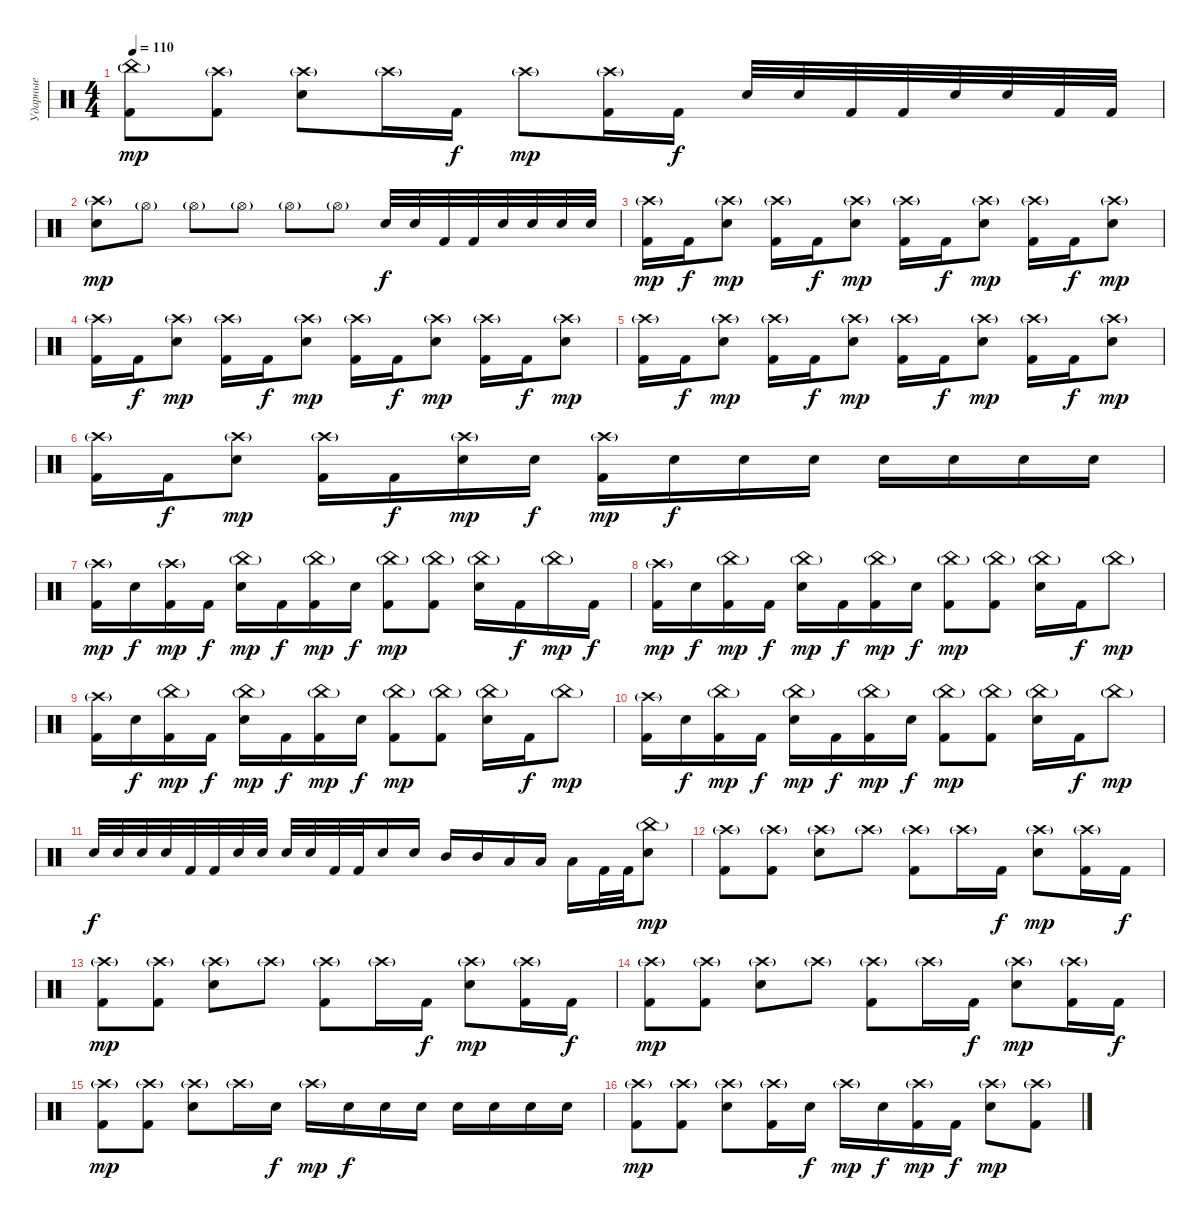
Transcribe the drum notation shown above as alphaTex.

\track ("Ударные" "Ударные") {instrument percussion}
\staff {score}
\articulation defaults
\ts (4 4)
\tempo 110
\clef neutral
\ks c
("China (hit)"{g} "Kick (hit) 2").8{dy mp} ("Crash high (hit)"{g} "Kick (hit) 2").8 ("Crash high (hit)"{g} "Electric Snare (hit)").8 "Crash high (hit)"{g}.16 "Kick (hit) 2".16{dy f} "Crash high (hit)"{g}.8{dy mp} ("Crash high (hit)"{g} "Kick (hit) 2").16 "Kick (hit) 2".16{dy f} "Electric Snare (hit)".32 "Electric Snare (hit)".32 "Kick (hit) 2".32 "Kick (hit) 2".32 "Electric Snare (hit)".32 "Electric Snare (hit)".32 "Kick (hit) 2".32 "Kick (hit) 2".32 |
("Crash high (hit)"{g} "Electric Snare (hit)").8{dy mp} "Hi-Hat (open)"{g}.8 "Hi-Hat (open)"{g}.8 "Hi-Hat (open)"{g}.8 "Hi-Hat (open)"{g}.8 "Hi-Hat (open)"{g}.8 "Electric Snare (hit)".32{dy f} "Electric Snare (hit)".32 "Kick (hit) 2".32 "Kick (hit) 2".32 "Electric Snare (hit)".32 "Electric Snare (hit)".32 "Electric Snare (hit)".32 "Electric Snare (hit)".32 |
("Crash high (hit)"{g} "Kick (hit) 2").16{dy mp} "Kick (hit) 2".16{dy f} ("Crash high (hit)"{g} "Electric Snare (hit)").8{dy mp} ("Crash high (hit)"{g} "Kick (hit) 2").16 "Kick (hit) 2".16{dy f} ("Crash high (hit)"{g} "Electric Snare (hit)").8{dy mp} ("Crash high (hit)"{g} "Kick (hit) 2").16 "Kick (hit) 2".16{dy f} ("Crash high (hit)"{g} "Electric Snare (hit)").8{dy mp} ("Crash high (hit)"{g} "Kick (hit) 2").16 "Kick (hit) 2".16{dy f} ("Crash high (hit)"{g} "Electric Snare (hit)").8{dy mp} |
("Crash high (hit)"{g} "Kick (hit) 2").16 "Kick (hit) 2".16{dy f} ("Crash high (hit)"{g} "Electric Snare (hit)").8{dy mp} ("Crash high (hit)"{g} "Kick (hit) 2").16 "Kick (hit) 2".16{dy f} ("Crash high (hit)"{g} "Electric Snare (hit)").8{dy mp} ("Crash high (hit)"{g} "Kick (hit) 2").16 "Kick (hit) 2".16{dy f} ("Crash high (hit)"{g} "Electric Snare (hit)").8{dy mp} ("Crash high (hit)"{g} "Kick (hit) 2").16 "Kick (hit) 2".16{dy f} ("Crash high (hit)"{g} "Electric Snare (hit)").8{dy mp} |
("Crash high (hit)"{g} "Kick (hit) 2").16 "Kick (hit) 2".16{dy f} ("Crash high (hit)"{g} "Electric Snare (hit)").8{dy mp} ("Crash high (hit)"{g} "Kick (hit) 2").16 "Kick (hit) 2".16{dy f} ("Crash high (hit)"{g} "Electric Snare (hit)").8{dy mp} ("Crash high (hit)"{g} "Kick (hit) 2").16 "Kick (hit) 2".16{dy f} ("Crash high (hit)"{g} "Electric Snare (hit)").8{dy mp} ("Crash high (hit)"{g} "Kick (hit) 2").16 "Kick (hit) 2".16{dy f} ("Crash high (hit)"{g} "Electric Snare (hit)").8{dy mp} |
("Crash high (hit)"{g} "Kick (hit) 2").16 "Kick (hit) 2".16{dy f} ("Crash high (hit)"{g} "Electric Snare (hit)").8{dy mp} ("Crash high (hit)"{g} "Kick (hit) 2").16 "Kick (hit) 2".16{dy f} ("Crash high (hit)"{g} "Electric Snare (hit)").16{dy mp} "Electric Snare (hit)".16{dy f} ("Crash high (hit)"{g} "Kick (hit) 2").16{dy mp} "Electric Snare (hit)".16{dy f} "Electric Snare (hit)".16 "Electric Snare (hit)".16 "Electric Snare (hit)".16 "Electric Snare (hit)".16 "Electric Snare (hit)".16 "Electric Snare (hit)".16 |
("Crash high (hit)"{g} "Kick (hit) 2").16{dy mp} "Electric Snare (hit)".16{dy f} ("Crash high (hit)"{g} "Kick (hit) 2").16{dy mp} "Kick (hit) 2".16{dy f} ("China (hit)"{g} "Electric Snare (hit)").16{dy mp} "Kick (hit) 2".16{dy f} ("China (hit)"{g} "Kick (hit) 2").16{dy mp} "Electric Snare (hit)".16{dy f} ("China (hit)"{g} "Kick (hit) 2").8{dy mp} ("China (hit)"{g} "Kick (hit) 2").8 ("China (hit)"{g} "Electric Snare (hit)").16 "Kick (hit) 2".16{dy f} "China (hit)"{g}.16{dy mp} "Kick (hit) 2".16{dy f} |
("Crash high (hit)"{g} "Kick (hit) 2").16{dy mp} "Electric Snare (hit)".16{dy f} ("China (hit)"{g} "Kick (hit) 2").16{dy mp} "Kick (hit) 2".16{dy f} ("China (hit)"{g} "Electric Snare (hit)").16{dy mp} "Kick (hit) 2".16{dy f} ("China (hit)"{g} "Kick (hit) 2").16{dy mp} "Electric Snare (hit)".16{dy f} ("China (hit)"{g} "Kick (hit) 2").8{dy mp} ("China (hit)"{g} "Kick (hit) 2").8 ("China (hit)"{g} "Electric Snare (hit)").16 "Kick (hit) 2".16{dy f} "China (hit)"{g}.8{dy mp} |
("Crash high (hit)"{g} "Kick (hit) 2").16 "Electric Snare (hit)".16{dy f} ("China (hit)"{g} "Kick (hit) 2").16{dy mp} "Kick (hit) 2".16{dy f} ("China (hit)"{g} "Electric Snare (hit)").16{dy mp} "Kick (hit) 2".16{dy f} ("China (hit)"{g} "Kick (hit) 2").16{dy mp} "Electric Snare (hit)".16{dy f} ("China (hit)"{g} "Kick (hit) 2").8{dy mp} ("China (hit)"{g} "Kick (hit) 2").8 ("China (hit)"{g} "Electric Snare (hit)").16 "Kick (hit) 2".16{dy f} "China (hit)"{g}.8{dy mp} |
("Crash high (hit)"{g} "Kick (hit) 2").16 "Electric Snare (hit)".16{dy f} ("China (hit)"{g} "Kick (hit) 2").16{dy mp} "Kick (hit) 2".16{dy f} ("China (hit)"{g} "Electric Snare (hit)").16{dy mp} "Kick (hit) 2".16{dy f} ("China (hit)"{g} "Kick (hit) 2").16{dy mp} "Electric Snare (hit)".16{dy f} ("China (hit)"{g} "Kick (hit) 2").8{dy mp} ("China (hit)"{g} "Kick (hit) 2").8 ("China (hit)"{g} "Electric Snare (hit)").16 "Kick (hit) 2".16{dy f} "China (hit)"{g}.8{dy mp} |
"Electric Snare (hit)".32{dy f} "Electric Snare (hit)".32 "Electric Snare (hit)".32 "Electric Snare (hit)".32 "Kick (hit) 2".32 "Kick (hit) 2".32 "Electric Snare (hit)".32 "Electric Snare (hit)".32 "Electric Snare (hit)".32 "Electric Snare (hit)".32 "Kick (hit) 2".32 "Kick (hit) 2".32 "Electric Snare (hit)".16 "Electric Snare (hit)".16 "Mid Tom (hit)".16 "Mid Tom (hit)".16 "Low Tom (hit)".16 "Low Tom (hit)".16 "Low Tom (hit)".16 "Kick (hit) 2".32 "Kick (hit) 2".32 ("China (hit)"{g} "Electric Snare (hit)").8{dy mp} |
("Crash high (hit)"{g} "Kick (hit) 2").8 ("Crash high (hit)"{g} "Kick (hit) 2").8 ("Crash high (hit)"{g} "Electric Snare (hit)").8 "Crash high (hit)"{g}.8 ("Crash high (hit)"{g} "Kick (hit) 2").8 "Crash high (hit)"{g}.16 "Kick (hit) 2".16{dy f} ("Crash high (hit)"{g} "Electric Snare (hit)").8{dy mp} ("Crash high (hit)"{g} "Kick (hit) 2").16 "Kick (hit) 2".16{dy f} |
("Crash high (hit)"{g} "Kick (hit) 2").8{dy mp} ("Crash high (hit)"{g} "Kick (hit) 2").8 ("Crash high (hit)"{g} "Electric Snare (hit)").8 "Crash high (hit)"{g}.8 ("Crash high (hit)"{g} "Kick (hit) 2").8 "Crash high (hit)"{g}.16 "Kick (hit) 2".16{dy f} ("Crash high (hit)"{g} "Electric Snare (hit)").8{dy mp} ("Crash high (hit)"{g} "Kick (hit) 2").16 "Kick (hit) 2".16{dy f} |
("Crash high (hit)"{g} "Kick (hit) 2").8{dy mp} ("Crash high (hit)"{g} "Kick (hit) 2").8 ("Crash high (hit)"{g} "Electric Snare (hit)").8 "Crash high (hit)"{g}.8 ("Crash high (hit)"{g} "Kick (hit) 2").8 "Crash high (hit)"{g}.16 "Kick (hit) 2".16{dy f} ("Crash high (hit)"{g} "Electric Snare (hit)").8{dy mp} ("Crash high (hit)"{g} "Kick (hit) 2").16 "Kick (hit) 2".16{dy f} |
("Crash high (hit)"{g} "Kick (hit) 2").8{dy mp} ("Crash high (hit)"{g} "Kick (hit) 2").8 ("Crash high (hit)"{g} "Electric Snare (hit)").8 "Crash high (hit)"{g}.16 "Electric Snare (hit)".16{dy f} "Crash high (hit)"{g}.16{dy mp} "Electric Snare (hit)".16{dy f} "Electric Snare (hit)".16 "Electric Snare (hit)".16 "Electric Snare (hit)".16 "Electric Snare (hit)".16 "Electric Snare (hit)".16 "Electric Snare (hit)".16 |
("Crash high (hit)"{g} "Kick (hit) 2").8{dy mp} ("Crash high (hit)"{g} "Kick (hit) 2").8 ("Crash high (hit)"{g} "Electric Snare (hit)").8 ("Crash high (hit)"{g} "Kick (hit) 2").16 "Electric Snare (hit)".16{dy f} "Crash high (hit)"{g}.16{dy mp} "Electric Snare (hit)".16{dy f} ("Crash high (hit)"{g} "Kick (hit) 2").16{dy mp} "Kick (hit) 2".16{dy f} ("Crash high (hit)"{g} "Electric Snare (hit)").8{dy mp} ("Crash high (hit)"{g} "Kick (hit) 2").8
